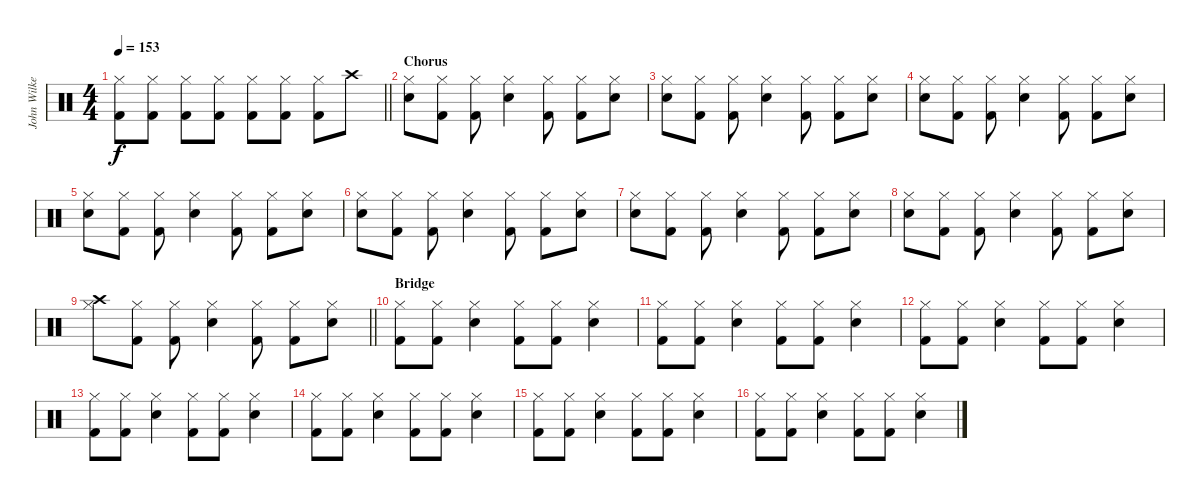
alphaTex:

\track ("John Wilkes (Percussion)" "John Wilke") {instrument percussion}
\staff {score}
\articulation defaults
\ts (4 4)
\tempo 153
\clef neutral
\barLineRight lightlight
\ks c
("Kick (hit) 2" "Hi-Hat (closed)").8{dy f} ("Kick (hit) 2" "Hi-Hat (closed)").8 ("Kick (hit) 2" "Hi-Hat (closed)").8 ("Kick (hit) 2" "Hi-Hat (closed)").8 ("Kick (hit) 2" "Hi-Hat (closed)").8 ("Kick (hit) 2" "Hi-Hat (closed)").8 ("Kick (hit) 2" "Hi-Hat (closed)").8 "Crash high (hit)".8 |
\section ("" "Chorus")
("Snare (hit) 2" "Hi-Hat (closed)").8 ("Kick (hit) 2" "Hi-Hat (closed)").8 ("Kick (hit) 2" "Hi-Hat (closed)").8 ("Snare (hit) 2" "Hi-Hat (closed)").4 ("Kick (hit) 2" "Hi-Hat (closed)").8 ("Kick (hit) 2" "Hi-Hat (closed)").8 ("Snare (hit) 2" "Hi-Hat (closed)").8 |
("Snare (hit) 2" "Hi-Hat (closed)").8 ("Kick (hit) 2" "Hi-Hat (closed)").8 ("Kick (hit) 2" "Hi-Hat (closed)").8 ("Snare (hit) 2" "Hi-Hat (closed)").4 ("Kick (hit) 2" "Hi-Hat (closed)").8 ("Kick (hit) 2" "Hi-Hat (closed)").8 ("Snare (hit) 2" "Hi-Hat (closed)").8 |
("Snare (hit) 2" "Hi-Hat (closed)").8 ("Kick (hit) 2" "Hi-Hat (closed)").8 ("Kick (hit) 2" "Hi-Hat (closed)").8 ("Snare (hit) 2" "Hi-Hat (closed)").4 ("Kick (hit) 2" "Hi-Hat (closed)").8 ("Kick (hit) 2" "Hi-Hat (closed)").8 ("Snare (hit) 2" "Hi-Hat (closed)").8 |
("Snare (hit) 2" "Hi-Hat (closed)").8 ("Kick (hit) 2" "Hi-Hat (closed)").8 ("Kick (hit) 2" "Hi-Hat (closed)").8 ("Snare (hit) 2" "Hi-Hat (closed)").4 ("Kick (hit) 2" "Hi-Hat (closed)").8 ("Kick (hit) 2" "Hi-Hat (closed)").8 ("Snare (hit) 2" "Hi-Hat (closed)").8 |
("Snare (hit) 2" "Hi-Hat (closed)").8 ("Kick (hit) 2" "Hi-Hat (closed)").8 ("Kick (hit) 2" "Hi-Hat (closed)").8 ("Snare (hit) 2" "Hi-Hat (closed)").4 ("Kick (hit) 2" "Hi-Hat (closed)").8 ("Kick (hit) 2" "Hi-Hat (closed)").8 ("Snare (hit) 2" "Hi-Hat (closed)").8 |
("Snare (hit) 2" "Hi-Hat (closed)").8 ("Kick (hit) 2" "Hi-Hat (closed)").8 ("Kick (hit) 2" "Hi-Hat (closed)").8 ("Snare (hit) 2" "Hi-Hat (closed)").4 ("Kick (hit) 2" "Hi-Hat (closed)").8 ("Kick (hit) 2" "Hi-Hat (closed)").8 ("Snare (hit) 2" "Hi-Hat (closed)").8 |
("Snare (hit) 2" "Hi-Hat (closed)").8 ("Kick (hit) 2" "Hi-Hat (closed)").8 ("Kick (hit) 2" "Hi-Hat (closed)").8 ("Snare (hit) 2" "Hi-Hat (closed)").4 ("Kick (hit) 2" "Hi-Hat (closed)").8 ("Kick (hit) 2" "Hi-Hat (closed)").8 ("Snare (hit) 2" "Hi-Hat (closed)").8 |
\barLineRight lightlight
("Crash high (hit)" "Hi-Hat (closed)").8 ("Kick (hit) 2" "Hi-Hat (closed)").8 ("Kick (hit) 2" "Hi-Hat (closed)").8 ("Snare (hit) 2" "Hi-Hat (closed)").4 ("Kick (hit) 2" "Hi-Hat (closed)").8 ("Kick (hit) 2" "Hi-Hat (closed)").8 ("Snare (hit) 2" "Hi-Hat (closed)").8 |
\section ("" "Bridge")
("Kick (hit) 2" "Hi-Hat (closed)").8 ("Kick (hit) 2" "Hi-Hat (closed)").8 ("Snare (hit) 2" "Hi-Hat (closed)").4 ("Kick (hit) 2" "Hi-Hat (closed)").8 ("Kick (hit) 2" "Hi-Hat (closed)").8 ("Snare (hit) 2" "Hi-Hat (closed)").4 |
("Kick (hit) 2" "Hi-Hat (closed)").8 ("Kick (hit) 2" "Hi-Hat (closed)").8 ("Snare (hit) 2" "Hi-Hat (closed)").4 ("Kick (hit) 2" "Hi-Hat (closed)").8 ("Kick (hit) 2" "Hi-Hat (closed)").8 ("Snare (hit) 2" "Hi-Hat (closed)").4 |
("Kick (hit) 2" "Hi-Hat (closed)").8 ("Kick (hit) 2" "Hi-Hat (closed)").8 ("Snare (hit) 2" "Hi-Hat (closed)").4 ("Kick (hit) 2" "Hi-Hat (closed)").8 ("Kick (hit) 2" "Hi-Hat (closed)").8 ("Snare (hit) 2" "Hi-Hat (closed)").4 |
("Kick (hit) 2" "Hi-Hat (closed)").8 ("Kick (hit) 2" "Hi-Hat (closed)").8 ("Snare (hit) 2" "Hi-Hat (closed)").4 ("Kick (hit) 2" "Hi-Hat (closed)").8 ("Kick (hit) 2" "Hi-Hat (closed)").8 ("Snare (hit) 2" "Hi-Hat (closed)").4 |
("Kick (hit) 2" "Hi-Hat (closed)").8 ("Kick (hit) 2" "Hi-Hat (closed)").8 ("Snare (hit) 2" "Hi-Hat (closed)").4 ("Kick (hit) 2" "Hi-Hat (closed)").8 ("Kick (hit) 2" "Hi-Hat (closed)").8 ("Snare (hit) 2" "Hi-Hat (closed)").4 |
("Kick (hit) 2" "Hi-Hat (closed)").8 ("Kick (hit) 2" "Hi-Hat (closed)").8 ("Snare (hit) 2" "Hi-Hat (closed)").4 ("Kick (hit) 2" "Hi-Hat (closed)").8 ("Kick (hit) 2" "Hi-Hat (closed)").8 ("Snare (hit) 2" "Hi-Hat (closed)").4 |
("Kick (hit) 2" "Hi-Hat (closed)").8 ("Kick (hit) 2" "Hi-Hat (closed)").8 ("Snare (hit) 2" "Hi-Hat (closed)").4 ("Kick (hit) 2" "Hi-Hat (closed)").8 ("Kick (hit) 2" "Hi-Hat (closed)").8 ("Snare (hit) 2" "Hi-Hat (closed)").4
